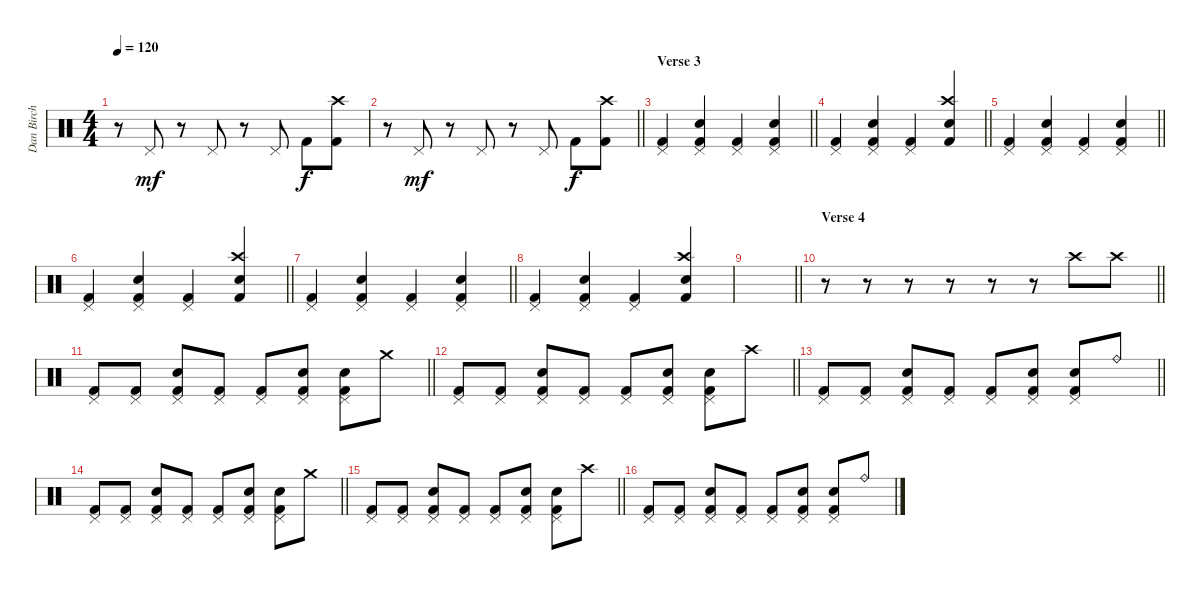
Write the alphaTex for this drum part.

\track ("Dan Birch" "Dan Birch") {instrument percussion}
\staff {score}
\articulation defaults
\ts (4 4)
\tempo 120
\clef neutral
\ks c
r.8{dy f} "Pedal Hi-Hat (hit)".8{dy mf} r.8 "Pedal Hi-Hat (hit)".8 r.8 "Pedal Hi-Hat (hit)".8 "Kick (hit) 2".8{dy f} ("Crash high (hit)" "Kick (hit) 2").8 |
\barLineRight lightlight
r.8 "Pedal Hi-Hat (hit)".8{dy mf} r.8 "Pedal Hi-Hat (hit)".8 r.8 "Pedal Hi-Hat (hit)".8 "Kick (hit) 2".8{dy f} ("Crash high (hit)" "Kick (hit) 2").8 |
\section ("" "Verse 3")
\barLineRight lightlight
("Pedal Hi-Hat (hit)" "Kick (hit) 2").4 ("Pedal Hi-Hat (hit)" "Snare (hit) 2" "Kick (hit) 2").4 ("Pedal Hi-Hat (hit)" "Kick (hit) 2").4 ("Pedal Hi-Hat (hit)" "Snare (hit) 2" "Kick (hit) 2").4 |
\barLineRight lightlight
("Pedal Hi-Hat (hit)" "Kick (hit) 2").4 ("Pedal Hi-Hat (hit)" "Snare (hit) 2" "Kick (hit) 2").4 ("Pedal Hi-Hat (hit)" "Kick (hit) 2").4 ("Crash high (hit)" "Snare (hit) 2" "Kick (hit) 2").4 |
\barLineRight lightlight
("Pedal Hi-Hat (hit)" "Kick (hit) 2").4 ("Pedal Hi-Hat (hit)" "Snare (hit) 2" "Kick (hit) 2").4 ("Pedal Hi-Hat (hit)" "Kick (hit) 2").4 ("Pedal Hi-Hat (hit)" "Snare (hit) 2" "Kick (hit) 2").4 |
\barLineRight lightlight
("Pedal Hi-Hat (hit)" "Kick (hit) 2").4 ("Pedal Hi-Hat (hit)" "Snare (hit) 2" "Kick (hit) 2").4 ("Pedal Hi-Hat (hit)" "Kick (hit) 2").4 ("Crash high (hit)" "Snare (hit) 2" "Kick (hit) 2").4 |
\barLineRight lightlight
("Pedal Hi-Hat (hit)" "Kick (hit) 2").4 ("Pedal Hi-Hat (hit)" "Snare (hit) 2" "Kick (hit) 2").4 ("Pedal Hi-Hat (hit)" "Kick (hit) 2").4 ("Pedal Hi-Hat (hit)" "Snare (hit) 2" "Kick (hit) 2").4 |
("Pedal Hi-Hat (hit)" "Kick (hit) 2").4 ("Pedal Hi-Hat (hit)" "Snare (hit) 2" "Kick (hit) 2").4 ("Pedal Hi-Hat (hit)" "Kick (hit) 2").4 ("Crash high (hit)" "Snare (hit) 2" "Kick (hit) 2").4 |
\barLineRight lightlight
|
\section ("" "Verse 4")
\barLineRight lightlight
r.8 r.8 r.8 r.8 r.8 r.8 "Crash high (hit)".8 "Crash high (hit)".8 |
\barLineRight lightlight
("Pedal Hi-Hat (hit)" "Kick (hit) 2").8 ("Pedal Hi-Hat (hit)" "Kick (hit) 2").8 ("Pedal Hi-Hat (hit)" "Snare (hit) 2" "Kick (hit) 2").8 ("Pedal Hi-Hat (hit)" "Kick (hit) 2").8 ("Pedal Hi-Hat (hit)" "Kick (hit) 2").8 ("Pedal Hi-Hat (hit)" "Snare (hit) 2" "Kick (hit) 2").8 ("Pedal Hi-Hat (hit)" "Snare (hit) 2" "Kick (hit) 2").8 "Crash medium (hit)".8 |
\barLineRight lightlight
("Pedal Hi-Hat (hit)" "Kick (hit) 2").8 ("Pedal Hi-Hat (hit)" "Kick (hit) 2").8 ("Pedal Hi-Hat (hit)" "Snare (hit) 2" "Kick (hit) 2").8 ("Pedal Hi-Hat (hit)" "Kick (hit) 2").8 ("Pedal Hi-Hat (hit)" "Kick (hit) 2").8 ("Pedal Hi-Hat (hit)" "Snare (hit) 2" "Kick (hit) 2").8 ("Pedal Hi-Hat (hit)" "Snare (hit) 2" "Kick (hit) 2").8 "Crash high (hit)".8 |
\barLineRight lightlight
("Pedal Hi-Hat (hit)" "Kick (hit) 2").8 ("Pedal Hi-Hat (hit)" "Kick (hit) 2").8 ("Pedal Hi-Hat (hit)" "Snare (hit) 2" "Kick (hit) 2").8 ("Pedal Hi-Hat (hit)" "Kick (hit) 2").8 ("Pedal Hi-Hat (hit)" "Kick (hit) 2").8 ("Pedal Hi-Hat (hit)" "Snare (hit) 2" "Kick (hit) 2").8 ("Pedal Hi-Hat (hit)" "Snare (hit) 2" "Kick (hit) 2").8 "Ride (bell)".8 |
\barLineRight lightlight
("Pedal Hi-Hat (hit)" "Kick (hit) 2").8 ("Pedal Hi-Hat (hit)" "Kick (hit) 2").8 ("Pedal Hi-Hat (hit)" "Snare (hit) 2" "Kick (hit) 2").8 ("Pedal Hi-Hat (hit)" "Kick (hit) 2").8 ("Pedal Hi-Hat (hit)" "Kick (hit) 2").8 ("Pedal Hi-Hat (hit)" "Snare (hit) 2" "Kick (hit) 2").8 ("Pedal Hi-Hat (hit)" "Snare (hit) 2" "Kick (hit) 2").8 "Crash medium (hit)".8 |
\barLineRight lightlight
("Pedal Hi-Hat (hit)" "Kick (hit) 2").8 ("Pedal Hi-Hat (hit)" "Kick (hit) 2").8 ("Pedal Hi-Hat (hit)" "Snare (hit) 2" "Kick (hit) 2").8 ("Pedal Hi-Hat (hit)" "Kick (hit) 2").8 ("Pedal Hi-Hat (hit)" "Kick (hit) 2").8 ("Pedal Hi-Hat (hit)" "Snare (hit) 2" "Kick (hit) 2").8 ("Pedal Hi-Hat (hit)" "Snare (hit) 2" "Kick (hit) 2").8 "Crash high (hit)".8 |
("Pedal Hi-Hat (hit)" "Kick (hit) 2").8 ("Pedal Hi-Hat (hit)" "Kick (hit) 2").8 ("Pedal Hi-Hat (hit)" "Snare (hit) 2" "Kick (hit) 2").8 ("Pedal Hi-Hat (hit)" "Kick (hit) 2").8 ("Pedal Hi-Hat (hit)" "Kick (hit) 2").8 ("Pedal Hi-Hat (hit)" "Snare (hit) 2" "Kick (hit) 2").8 ("Pedal Hi-Hat (hit)" "Snare (hit) 2" "Kick (hit) 2").8 "Ride (bell)".8
